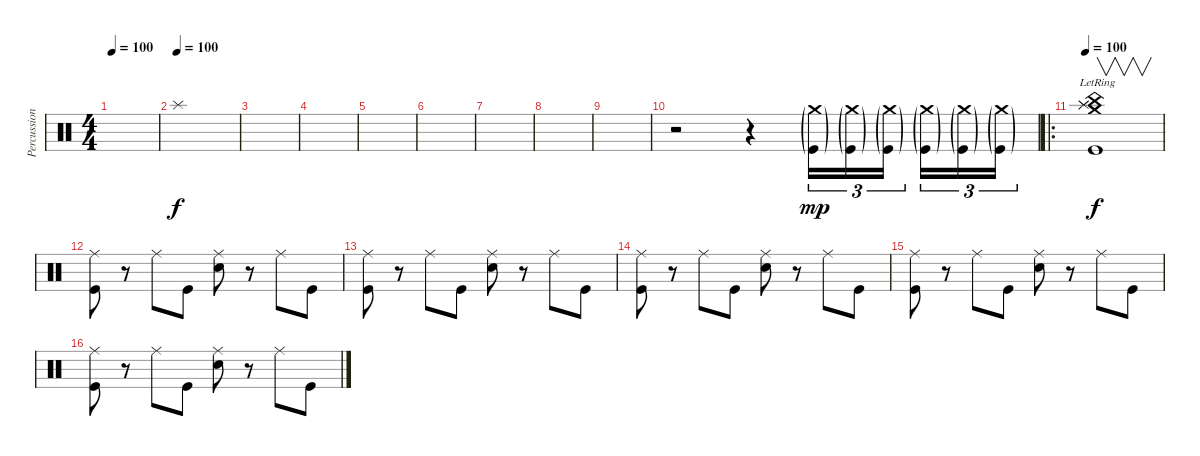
\track ("Percussioni" "Percussion") {instrument percussion}
\staff {score}
\articulation defaults
\ts (4 4)
\tempo 100
\clef neutral
\ks c
|
\tempo (100)
"Splash (hit)".1 |
|
|
|
|
|
|
|
r.2 r.4 ("Kick (hit)"{g} "Crash medium (hit)"{g}).16{tu (3 2) dy mp} ("Kick (hit)"{g} "Crash medium (hit)"{g}).16{tu (3 2)} ("Kick (hit)"{g} "Crash medium (hit)"{g}).16{tu (3 2)} ("Kick (hit)"{g} "Crash medium (hit)"{g}).16{tu (3 2)} ("Kick (hit)"{g} "Crash medium (hit)"{g}).16{tu (3 2)} ("Kick (hit)"{g} "Crash medium (hit)"{g}).16{tu (3 2)} |
\ro
\tempo 100
("China (hit)"{lr} "Splash (hit)"{lr} "Crash medium (hit)" "Splash (hit)" "Kick (hit)").1{v dy f} |
("Ride (middle)" "Kick (hit)").8 r.8 "Ride (middle)".8 "Kick (hit)".8 ("Ride (middle)" "Snare (hit) 2").8 r.8 "Ride (middle)".8 "Kick (hit)".8 |
("Ride (middle)" "Kick (hit)").8 r.8 "Ride (middle)".8 "Kick (hit)".8 ("Ride (middle)" "Snare (hit) 2").8 r.8 "Ride (middle)".8 "Kick (hit)".8 |
("Ride (middle)" "Kick (hit)").8 r.8 "Ride (middle)".8 "Kick (hit)".8 ("Ride (middle)" "Snare (hit) 2").8 r.8 "Ride (middle)".8 "Kick (hit)".8 |
("Ride (middle)" "Kick (hit)").8 r.8 "Ride (middle)".8 "Kick (hit)".8 ("Ride (middle)" "Snare (hit) 2").8 r.8 "Ride (middle)".8 "Kick (hit)".8 |
("Ride (middle)" "Kick (hit)").8 r.8 "Ride (middle)".8 "Kick (hit)".8 ("Ride (middle)" "Snare (hit) 2").8 r.8 "Ride (middle)".8 "Kick (hit)".8
